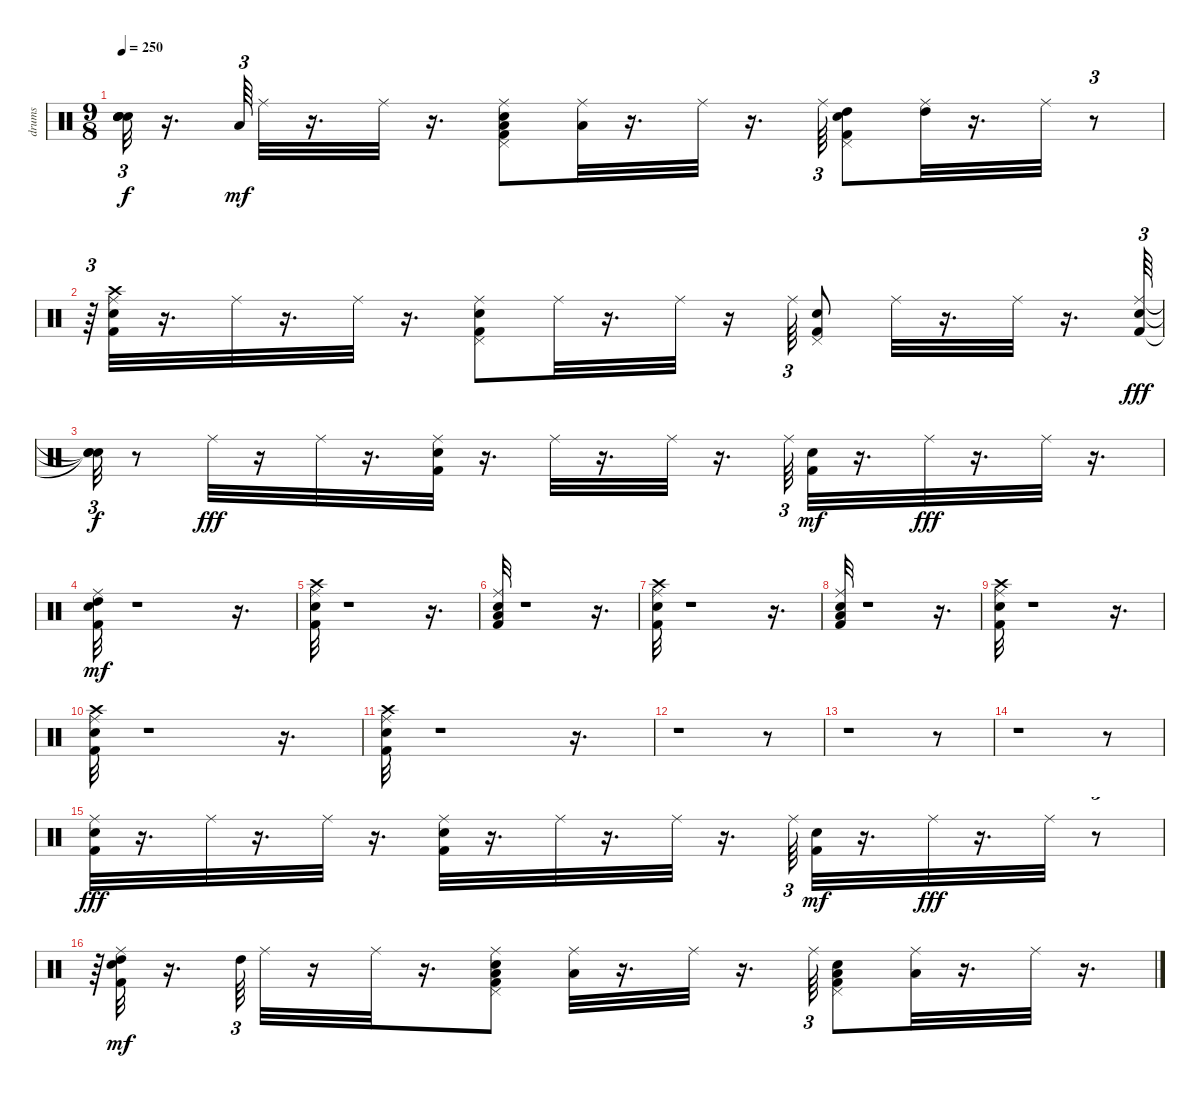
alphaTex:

\track ("drums               " "drums     ") {instrument percussion}
\staff {score}
\articulation defaults
\ts (9 8)
\tempo 250
\clef neutral
\ks c
("Snare (hit)"{t} "Snare (hit)"{t} "Snare (hit)"{t} "Snare (hit)"{t}).32{tu (3 2) dy f} r.16{d} "Low Floor Tom (hit)".64{tu (3 2) dy mf} "Ride (middle)".32 r.16{d} "Ride (middle)".32 r.16{d} ("Pedal Hi-Hat (hit)" "Snare (hit) 2" "Kick (hit) 2" "Low Tom (hit)" "Ride (middle)").8 ("Low Tom (hit)" "Ride (middle)").32 r.16{d} "Ride (middle)".32 r.16{d} "Ride (middle)".64{tu (3 2)} ("Snare (hit) 2" "Kick (hit) 2" "Pedal Hi-Hat (hit)" "High Tom (hit)").8 ("High Tom (hit)" "Ride (middle)").32 r.16{d} "Ride (middle)".32 r.8{tu (3 2)} |
r.64{tu (3 2)} ("Kick (hit) 2" "Snare (hit) 2" "Crash high (hit)" "Ride (middle)").32 r.16{d} "Ride (middle)".32 r.16{d} "Ride (middle)".32 r.16{d} ("Pedal Hi-Hat (hit)" "Snare (hit) 2" "Kick (hit) 2" "Ride (middle)").8 "Ride (middle)".32 r.16{d} "Ride (middle)".32 r.16 "Ride (middle)".64{tu (3 2)} ("Snare (hit) 2" "Kick (hit) 2" "Pedal Hi-Hat (hit)").8 "Ride (middle)".32 r.16{d} "Ride (middle)".32 r.16{d} ("Kick (hit) 2" "Snare (hit) 2" "Ride (middle)").64{tu (3 2) dy fff} |
("Snare (hit)"{t} "Snare (hit)"{t} "Snare (hit)"{t}).32{tu (3 2) dy f} r.8 "Ride (middle)".32{dy fff} r.16 "Ride (middle)".32 r.16{d} ("Snare (hit) 2" "Kick (hit) 2" "Ride (middle)").32 r.16{d} "Ride (middle)".32 r.16{d} "Ride (middle)".32 r.16{d} "Ride (middle)".64{tu (3 2)} ("Kick (hit) 2" "Snare (hit) 2").32{dy mf} r.16{d} "Ride (middle)".32{dy fff} r.16{d} "Ride (middle)".32 r.16{d} |
("Kick (hit) 2" "Snare (hit) 2" "High Tom (hit)" "Ride (middle)").32{dy mf} r.1 r.16{d} |
("Kick (hit) 2" "Snare (hit) 2" "Crash high (hit)" "Ride (middle)").32 r.1 r.16{d} |
("Kick (hit) 2" "Snare (hit) 2" "Low Floor Tom (hit)" "Ride (middle)").32 r.1 r.16{d} |
("Kick (hit) 2" "Snare (hit) 2" "Crash high (hit)" "Ride (middle)").32 r.1 r.16{d} |
("Kick (hit) 2" "Snare (hit) 2" "Low Floor Tom (hit)" "Ride (middle)").32 r.1 r.16{d} |
("Kick (hit) 2" "Snare (hit) 2" "Crash high (hit)" "Ride (middle)").32 r.1 r.16{d} |
("Kick (hit) 2" "Snare (hit) 2" "Crash high (hit)" "Ride (middle)").32 r.1 r.16{d} |
("Kick (hit) 2" "Snare (hit) 2" "Crash high (hit)" "Ride (middle)").32 r.1 r.16{d} |
r.1 r.8 |
r.1 r.8 |
r.1 r.8 |
("Kick (hit) 2" "Snare (hit) 2" "Ride (middle)").32{dy fff} r.16{d} "Ride (middle)".32 r.16{d} "Ride (middle)".32 r.16{d} ("Snare (hit) 2" "Kick (hit) 2" "Ride (middle)").32 r.16{d} "Ride (middle)".32 r.16{d} "Ride (middle)".32 r.16{d} "Ride (middle)".64{tu (3 2)} ("Kick (hit) 2" "Snare (hit) 2").32{dy mf} r.16{d} "Ride (middle)".32{dy fff} r.16{d} "Ride (middle)".32 r.8{tu (3 2)} |
r.64{tu (3 2)} ("Kick (hit) 2" "Snare (hit) 2" "High Tom (hit)" "Ride (middle)").32{dy mf} r.16{d} "High Tom (hit)".64{tu (3 2)} "Ride (middle)".32 r.16 "Ride (middle)".32 r.16{d} ("Pedal Hi-Hat (hit)" "Snare (hit) 2" "Kick (hit) 2" "Low Tom (hit)" "Ride (middle)").8 ("Low Tom (hit)" "Ride (middle)").32 r.16{d} "Ride (middle)".32 r.16{d} "Ride (middle)".64{tu (3 2)} ("Snare (hit) 2" "Kick (hit) 2" "Low Floor Tom (hit)" "Pedal Hi-Hat (hit)").8 ("Low Floor Tom (hit)" "Ride (middle)").32 r.16{d} "Ride (middle)".32 r.16{d}
